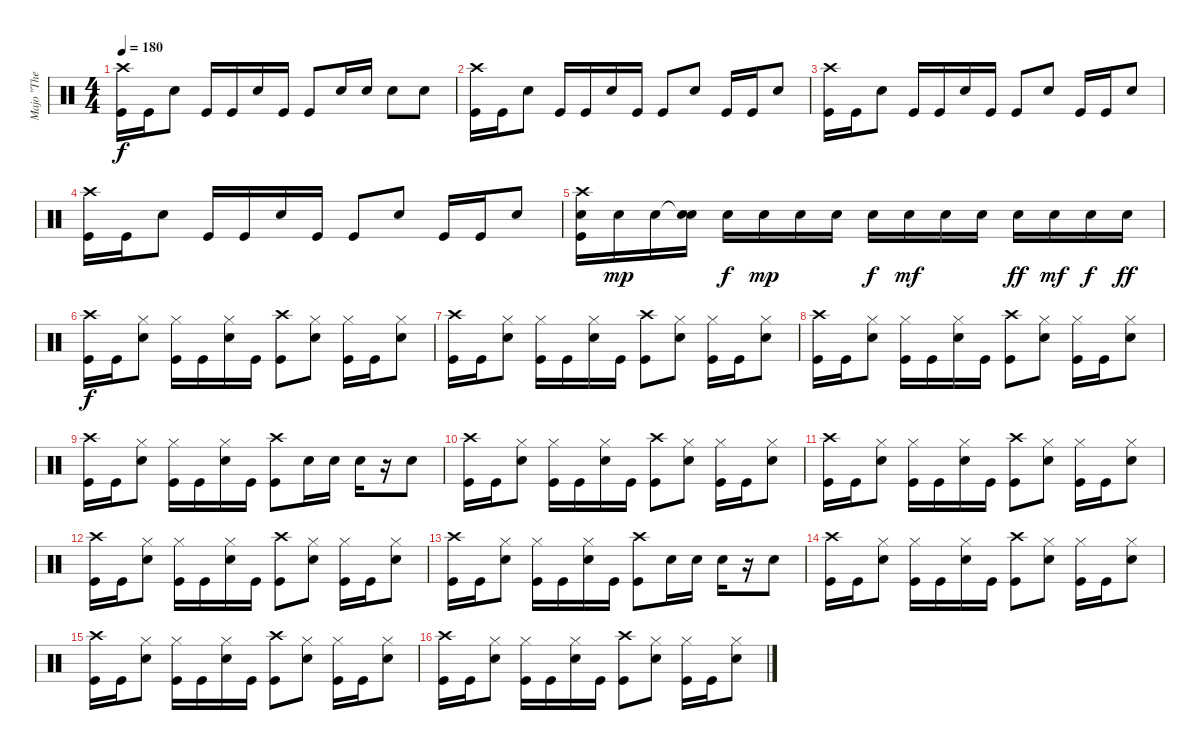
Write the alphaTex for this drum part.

\track ("Majo \"The Dremmel\" Hirt" "Majo \"The ") {instrument percussion}
\staff {score}
\articulation defaults
\ts (4 4)
\tempo 180
\clef neutral
\ks c
("Crash high (hit)" "Kick (hit)").16{dy f} "Kick (hit)".16 "Electric Snare (hit)".8 "Kick (hit)".16 "Kick (hit)".16 "Electric Snare (hit)".16 "Kick (hit)".16 "Kick (hit)".8 "Electric Snare (hit)".16 "Electric Snare (hit)".16 "Electric Snare (hit)".8 "Electric Snare (hit)".8 |
("Crash high (hit)" "Kick (hit)").16 "Kick (hit)".16 "Electric Snare (hit)".8 "Kick (hit)".16 "Kick (hit)".16 "Electric Snare (hit)".16 "Kick (hit)".16 "Kick (hit)".8 "Electric Snare (hit)".8 "Kick (hit)".16 "Kick (hit)".16 "Electric Snare (hit)".8 |
("Crash high (hit)" "Kick (hit)").16 "Kick (hit)".16 "Electric Snare (hit)".8 "Kick (hit)".16 "Kick (hit)".16 "Electric Snare (hit)".16 "Kick (hit)".16 "Kick (hit)".8 "Electric Snare (hit)".8 "Kick (hit)".16 "Kick (hit)".16 "Electric Snare (hit)".8 |
("Crash high (hit)" "Kick (hit)").16 "Kick (hit)".16 "Electric Snare (hit)".8 "Kick (hit)".16 "Kick (hit)".16 "Electric Snare (hit)".16 "Kick (hit)".16 "Kick (hit)".8 "Electric Snare (hit)".8 "Kick (hit)".16 "Kick (hit)".16 "Electric Snare (hit)".8 |
("Kick (hit)" "Crash high (hit)" "Electric Snare (hit)").16 "Electric Snare (hit)".16{dy mp} "Electric Snare (hit)".16 ("Snare (hit)"{t} "Electric Snare (hit)").16 "Electric Snare (hit)".16{dy f} "Electric Snare (hit)".16{dy mp} "Electric Snare (hit)".16 "Electric Snare (hit)".16 "Electric Snare (hit)".16{dy f} "Electric Snare (hit)".16{dy mf} "Electric Snare (hit)".16 "Electric Snare (hit)".16 "Electric Snare (hit)".16{dy ff} "Electric Snare (hit)".16{dy mf} "Electric Snare (hit)".16{dy f} "Electric Snare (hit)".16{dy ff} |
("Crash high (hit)" "Kick (hit)").16{dy f} "Kick (hit)".16 ("Hi-Hat (closed)" "Electric Snare (hit)").8 ("Hi-Hat (closed)" "Kick (hit)").16 "Kick (hit)".16 ("Hi-Hat (closed)" "Electric Snare (hit)").16 "Kick (hit)".16 ("Crash high (hit)" "Kick (hit)").8 ("Hi-Hat (closed)" "Electric Snare (hit)").8 ("Hi-Hat (closed)" "Kick (hit)").16 "Kick (hit)".16 ("Hi-Hat (closed)" "Electric Snare (hit)").8 |
("Crash high (hit)" "Kick (hit)").16 "Kick (hit)".16 ("Hi-Hat (closed)" "Electric Snare (hit)").8 ("Hi-Hat (closed)" "Kick (hit)").16 "Kick (hit)".16 ("Hi-Hat (closed)" "Electric Snare (hit)").16 "Kick (hit)".16 ("Crash high (hit)" "Kick (hit)").8 ("Hi-Hat (closed)" "Electric Snare (hit)").8 ("Hi-Hat (closed)" "Kick (hit)").16 "Kick (hit)".16 ("Hi-Hat (closed)" "Electric Snare (hit)").8 |
("Crash high (hit)" "Kick (hit)").16 "Kick (hit)".16 ("Hi-Hat (closed)" "Electric Snare (hit)").8 ("Hi-Hat (closed)" "Kick (hit)").16 "Kick (hit)".16 ("Hi-Hat (closed)" "Electric Snare (hit)").16 "Kick (hit)".16 ("Crash high (hit)" "Kick (hit)").8 ("Hi-Hat (closed)" "Electric Snare (hit)").8 ("Hi-Hat (closed)" "Kick (hit)").16 "Kick (hit)".16 ("Hi-Hat (closed)" "Electric Snare (hit)").8 |
("Crash high (hit)" "Kick (hit)").16 "Kick (hit)".16 ("Hi-Hat (closed)" "Electric Snare (hit)").8 ("Hi-Hat (closed)" "Kick (hit)").16 "Kick (hit)".16 ("Hi-Hat (closed)" "Electric Snare (hit)").16 "Kick (hit)".16 ("Crash high (hit)" "Kick (hit)").8 "Snare (hit) 2".16 "Snare (hit) 2".16 "Snare (hit) 2".16 r.16 "Snare (hit) 2".8 |
("Crash high (hit)" "Kick (hit)").16 "Kick (hit)".16 ("Hi-Hat (closed)" "Electric Snare (hit)").8 ("Hi-Hat (closed)" "Kick (hit)").16 "Kick (hit)".16 ("Hi-Hat (closed)" "Electric Snare (hit)").16 "Kick (hit)".16 ("Crash high (hit)" "Kick (hit)").8 ("Hi-Hat (closed)" "Electric Snare (hit)").8 ("Hi-Hat (closed)" "Kick (hit)").16 "Kick (hit)".16 ("Hi-Hat (closed)" "Electric Snare (hit)").8 |
("Crash high (hit)" "Kick (hit)").16 "Kick (hit)".16 ("Hi-Hat (closed)" "Electric Snare (hit)").8 ("Hi-Hat (closed)" "Kick (hit)").16 "Kick (hit)".16 ("Hi-Hat (closed)" "Electric Snare (hit)").16 "Kick (hit)".16 ("Crash high (hit)" "Kick (hit)").8 ("Hi-Hat (closed)" "Electric Snare (hit)").8 ("Hi-Hat (closed)" "Kick (hit)").16 "Kick (hit)".16 ("Hi-Hat (closed)" "Electric Snare (hit)").8 |
("Crash high (hit)" "Kick (hit)").16 "Kick (hit)".16 ("Hi-Hat (closed)" "Electric Snare (hit)").8 ("Hi-Hat (closed)" "Kick (hit)").16 "Kick (hit)".16 ("Hi-Hat (closed)" "Electric Snare (hit)").16 "Kick (hit)".16 ("Crash high (hit)" "Kick (hit)").8 ("Hi-Hat (closed)" "Electric Snare (hit)").8 ("Hi-Hat (closed)" "Kick (hit)").16 "Kick (hit)".16 ("Hi-Hat (closed)" "Electric Snare (hit)").8 |
("Crash high (hit)" "Kick (hit)").16 "Kick (hit)".16 ("Hi-Hat (closed)" "Electric Snare (hit)").8 ("Hi-Hat (closed)" "Kick (hit)").16 "Kick (hit)".16 ("Hi-Hat (closed)" "Electric Snare (hit)").16 "Kick (hit)".16 ("Crash high (hit)" "Kick (hit)").8 "Snare (hit) 2".16 "Snare (hit) 2".16 "Snare (hit) 2".16 r.16 "Snare (hit) 2".8 |
("Crash high (hit)" "Kick (hit)").16 "Kick (hit)".16 ("Hi-Hat (closed)" "Electric Snare (hit)").8 ("Hi-Hat (closed)" "Kick (hit)").16 "Kick (hit)".16 ("Hi-Hat (closed)" "Electric Snare (hit)").16 "Kick (hit)".16 ("Crash high (hit)" "Kick (hit)").8 ("Hi-Hat (closed)" "Electric Snare (hit)").8 ("Hi-Hat (closed)" "Kick (hit)").16 "Kick (hit)".16 ("Hi-Hat (closed)" "Electric Snare (hit)").8 |
("Crash high (hit)" "Kick (hit)").16 "Kick (hit)".16 ("Hi-Hat (closed)" "Electric Snare (hit)").8 ("Hi-Hat (closed)" "Kick (hit)").16 "Kick (hit)".16 ("Hi-Hat (closed)" "Electric Snare (hit)").16 "Kick (hit)".16 ("Crash high (hit)" "Kick (hit)").8 ("Hi-Hat (closed)" "Electric Snare (hit)").8 ("Hi-Hat (closed)" "Kick (hit)").16 "Kick (hit)".16 ("Hi-Hat (closed)" "Electric Snare (hit)").8 |
("Crash high (hit)" "Kick (hit)").16 "Kick (hit)".16 ("Hi-Hat (closed)" "Electric Snare (hit)").8 ("Hi-Hat (closed)" "Kick (hit)").16 "Kick (hit)".16 ("Hi-Hat (closed)" "Electric Snare (hit)").16 "Kick (hit)".16 ("Crash high (hit)" "Kick (hit)").8 ("Hi-Hat (closed)" "Electric Snare (hit)").8 ("Hi-Hat (closed)" "Kick (hit)").16 "Kick (hit)".16 ("Hi-Hat (closed)" "Electric Snare (hit)").8
